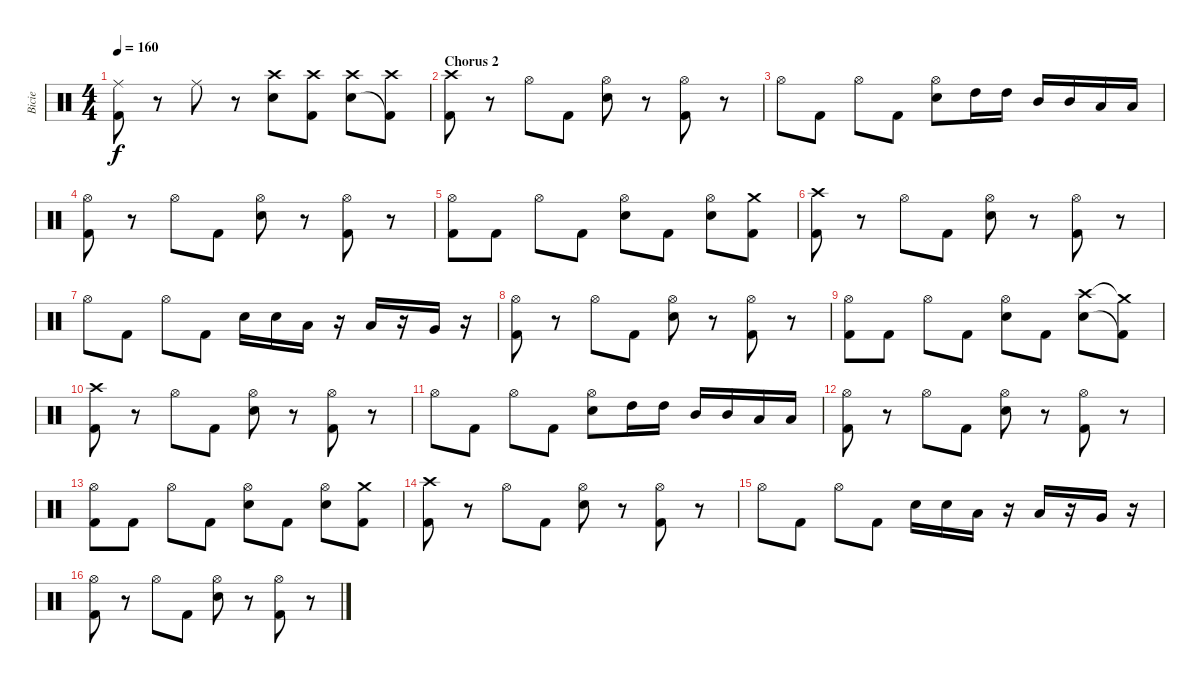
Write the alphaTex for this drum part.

\track ("Bicie" "Bicie") {instrument percussion}
\staff {score}
\articulation defaults
\ts (4 4)
\tempo 160
\clef neutral
\ks c
("Ride (middle)" "Kick (hit) 2").8{dy f} r.8 "Ride (middle)".8 r.8 ("Crash high (hit)" "Electric Snare (hit)").8 ("Crash high (hit)" "Kick (hit) 2").8 ("Crash high (hit)" "Electric Snare (hit)").8 ("Crash high (hit)" "Kick (hit) 2"{t}).8 |
\section ("" "Chorus 2")
("Crash high (hit)" "Kick (hit) 2").8 r.8 "Hi-Hat (open)".8 "Kick (hit) 2".8 ("Hi-Hat (open)" "Electric Snare (hit)").8 r.8 ("Hi-Hat (open)" "Kick (hit) 2").8 r.8 |
"Hi-Hat (open)".8 "Kick (hit) 2".8 "Hi-Hat (open)".8 "Kick (hit) 2".8 ("Hi-Hat (open)" "Electric Snare (hit)").8 "High Tom (hit)".16 "High Tom (hit)".16 "Mid Tom (hit)".16 "Mid Tom (hit)".16 "Low Tom (hit)".16 "Low Tom (hit)".16 |
("Hi-Hat (open)" "Kick (hit) 2").8 r.8 "Hi-Hat (open)".8 "Kick (hit) 2".8 ("Hi-Hat (open)" "Electric Snare (hit)").8 r.8 ("Hi-Hat (open)" "Kick (hit) 2").8 r.8 |
("Hi-Hat (open)" "Kick (hit) 2").8 "Kick (hit) 2".8 "Hi-Hat (open)".8 "Kick (hit) 2".8 ("Hi-Hat (open)" "Electric Snare (hit)").8 "Kick (hit) 2".8 ("Hi-Hat (open)" "Electric Snare (hit)").8 ("Crash medium (hit)" "Kick (hit) 2").8 |
("Crash high (hit)" "Kick (hit) 2").8 r.8 "Hi-Hat (open)".8 "Kick (hit) 2".8 ("Hi-Hat (open)" "Electric Snare (hit)").8 r.8 ("Hi-Hat (open)" "Kick (hit) 2").8 r.8 |
"Hi-Hat (open)".8 "Kick (hit) 2".8 "Hi-Hat (open)".8 "Kick (hit) 2".8 "Electric Snare (hit)".16 "Electric Snare (hit)".16 "Low Tom (hit)".16 r.16 "Low Tom (hit)".16 r.16 "Very Low Tom (hit)".16 r.16 |
("Hi-Hat (open)" "Kick (hit) 2").8 r.8 "Hi-Hat (open)".8 "Kick (hit) 2".8 ("Hi-Hat (open)" "Electric Snare (hit)").8 r.8 ("Hi-Hat (open)" "Kick (hit) 2").8 r.8 |
("Hi-Hat (open)" "Kick (hit) 2").8 "Kick (hit) 2".8 "Hi-Hat (open)".8 "Kick (hit) 2".8 ("Hi-Hat (open)" "Electric Snare (hit)").8 "Kick (hit) 2".8 ("Crash high (hit)" "Electric Snare (hit)").8 ("Crash medium (hit)"{t} "Kick (hit) 2"{t}).8 |
("Crash high (hit)" "Kick (hit) 2").8 r.8 "Hi-Hat (open)".8 "Kick (hit) 2".8 ("Hi-Hat (open)" "Electric Snare (hit)").8 r.8 ("Hi-Hat (open)" "Kick (hit) 2").8 r.8 |
"Hi-Hat (open)".8 "Kick (hit) 2".8 "Hi-Hat (open)".8 "Kick (hit) 2".8 ("Hi-Hat (open)" "Electric Snare (hit)").8 "High Tom (hit)".16 "High Tom (hit)".16 "Mid Tom (hit)".16 "Mid Tom (hit)".16 "Low Tom (hit)".16 "Low Tom (hit)".16 |
("Hi-Hat (open)" "Kick (hit) 2").8 r.8 "Hi-Hat (open)".8 "Kick (hit) 2".8 ("Hi-Hat (open)" "Electric Snare (hit)").8 r.8 ("Hi-Hat (open)" "Kick (hit) 2").8 r.8 |
("Hi-Hat (open)" "Kick (hit) 2").8 "Kick (hit) 2".8 "Hi-Hat (open)".8 "Kick (hit) 2".8 ("Hi-Hat (open)" "Electric Snare (hit)").8 "Kick (hit) 2".8 ("Hi-Hat (open)" "Electric Snare (hit)").8 ("Crash medium (hit)" "Kick (hit) 2").8 |
("Crash high (hit)" "Kick (hit) 2").8 r.8 "Hi-Hat (open)".8 "Kick (hit) 2".8 ("Hi-Hat (open)" "Electric Snare (hit)").8 r.8 ("Hi-Hat (open)" "Kick (hit) 2").8 r.8 |
"Hi-Hat (open)".8 "Kick (hit) 2".8 "Hi-Hat (open)".8 "Kick (hit) 2".8 "Electric Snare (hit)".16 "Electric Snare (hit)".16 "Low Tom (hit)".16 r.16 "Low Tom (hit)".16 r.16 "Very Low Tom (hit)".16 r.16 |
("Hi-Hat (open)" "Kick (hit) 2").8 r.8 "Hi-Hat (open)".8 "Kick (hit) 2".8 ("Hi-Hat (open)" "Electric Snare (hit)").8 r.8 ("Hi-Hat (open)" "Kick (hit) 2").8 r.8
